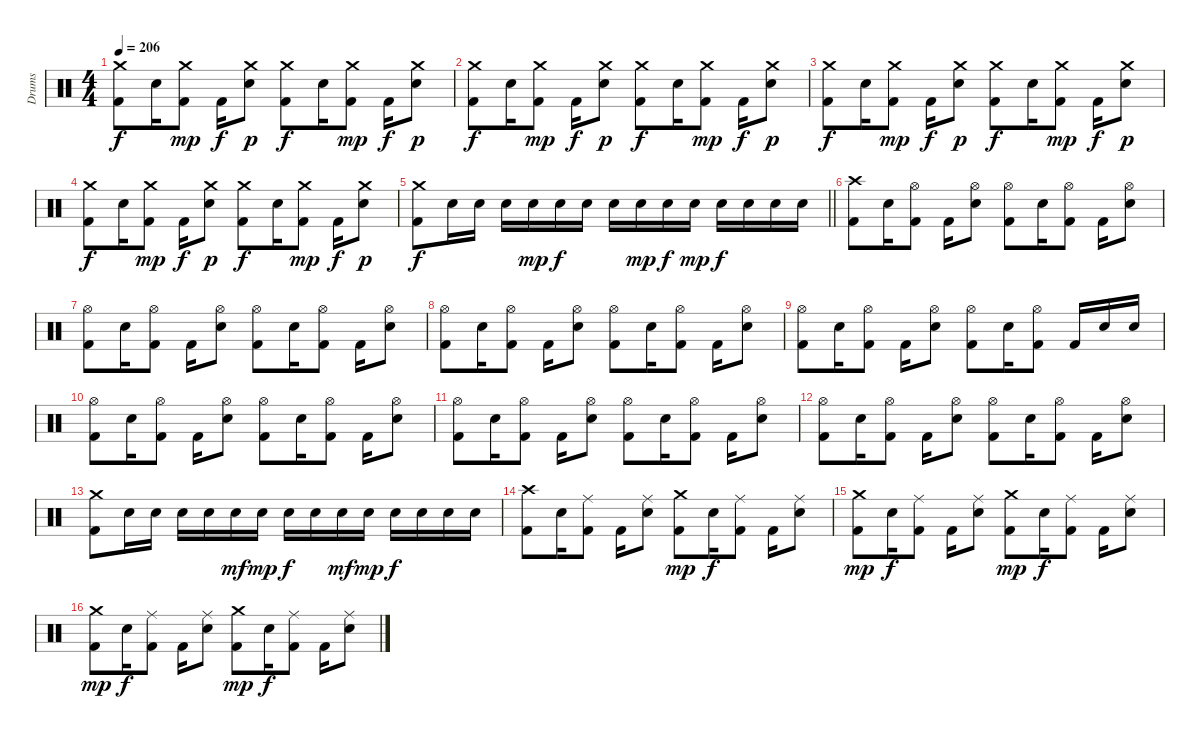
\track ("Drums" "Drums") {instrument percussion}
\staff {score}
\articulation defaults
\ts (4 4)
\tempo 206
\clef neutral
\ks c
("Crash medium (hit)" "Kick (hit) 2").8{dy f} "Electric Snare (hit)".16 ("Crash medium (hit)" "Kick (hit) 2").8{dy mp} "Kick (hit) 2".16{dy f} ("Crash medium (hit)" "Electric Snare (hit)").8{dy p} ("Crash medium (hit)" "Kick (hit) 2").8{dy f} "Electric Snare (hit)".16 ("Crash medium (hit)" "Kick (hit) 2").8{dy mp} "Kick (hit) 2".16{dy f} ("Crash medium (hit)" "Electric Snare (hit)").8{dy p} |
("Crash medium (hit)" "Kick (hit) 2").8{dy f} "Electric Snare (hit)".16 ("Crash medium (hit)" "Kick (hit) 2").8{dy mp} "Kick (hit) 2".16{dy f} ("Crash medium (hit)" "Electric Snare (hit)").8{dy p} ("Crash medium (hit)" "Kick (hit) 2").8{dy f} "Electric Snare (hit)".16 ("Crash medium (hit)" "Kick (hit) 2").8{dy mp} "Kick (hit) 2".16{dy f} ("Crash medium (hit)" "Electric Snare (hit)").8{dy p} |
("Crash medium (hit)" "Kick (hit) 2").8{dy f} "Electric Snare (hit)".16 ("Crash medium (hit)" "Kick (hit) 2").8{dy mp} "Kick (hit) 2".16{dy f} ("Crash medium (hit)" "Electric Snare (hit)").8{dy p} ("Crash medium (hit)" "Kick (hit) 2").8{dy f} "Electric Snare (hit)".16 ("Crash medium (hit)" "Kick (hit) 2").8{dy mp} "Kick (hit) 2".16{dy f} ("Crash medium (hit)" "Electric Snare (hit)").8{dy p} |
("Crash medium (hit)" "Kick (hit) 2").8{dy f} "Electric Snare (hit)".16 ("Crash medium (hit)" "Kick (hit) 2").8{dy mp} "Kick (hit) 2".16{dy f} ("Crash medium (hit)" "Electric Snare (hit)").8{dy p} ("Crash medium (hit)" "Kick (hit) 2").8{dy f} "Electric Snare (hit)".16 ("Crash medium (hit)" "Kick (hit) 2").8{dy mp} "Kick (hit) 2".16{dy f} ("Crash medium (hit)" "Electric Snare (hit)").8{dy p} |
\barLineRight lightlight
("Crash medium (hit)" "Kick (hit) 2").8{dy f} "Electric Snare (hit)".16 "Electric Snare (hit)".16 "Electric Snare (hit)".16 "Electric Snare (hit)".16{dy mp} "Electric Snare (hit)".16{dy f} "Electric Snare (hit)".16 "Electric Snare (hit)".16 "Electric Snare (hit)".16{dy mp} "Electric Snare (hit)".16{dy f} "Electric Snare (hit)".16{dy mp} "Electric Snare (hit)".16{dy f} "Electric Snare (hit)".16 "Electric Snare (hit)".16 "Electric Snare (hit)".16 |
\section ("" "")
("Crash high (hit)" "Kick (hit) 2").8 "Electric Snare (hit)".16 ("Hi-Hat (open)" "Kick (hit) 2").8 "Kick (hit) 2".16 ("Hi-Hat (open)" "Electric Snare (hit)").8 ("Hi-Hat (open)" "Kick (hit) 2").8 "Electric Snare (hit)".16 ("Hi-Hat (open)" "Kick (hit) 2").8 "Kick (hit) 2".16 ("Hi-Hat (open)" "Electric Snare (hit)").8 |
("Hi-Hat (open)" "Kick (hit) 2").8 "Electric Snare (hit)".16 ("Hi-Hat (open)" "Kick (hit) 2").8 "Kick (hit) 2".16 ("Hi-Hat (open)" "Electric Snare (hit)").8 ("Hi-Hat (open)" "Kick (hit) 2").8 "Electric Snare (hit)".16 ("Hi-Hat (open)" "Kick (hit) 2").8 "Kick (hit) 2".16 ("Hi-Hat (open)" "Electric Snare (hit)").8 |
("Hi-Hat (open)" "Kick (hit) 2").8 "Electric Snare (hit)".16 ("Hi-Hat (open)" "Kick (hit) 2").8 "Kick (hit) 2".16 ("Hi-Hat (open)" "Electric Snare (hit)").8 ("Hi-Hat (open)" "Kick (hit) 2").8 "Electric Snare (hit)".16 ("Hi-Hat (open)" "Kick (hit) 2").8 "Kick (hit) 2".16 ("Hi-Hat (open)" "Electric Snare (hit)").8 |
("Hi-Hat (open)" "Kick (hit) 2").8 "Electric Snare (hit)".16 ("Hi-Hat (open)" "Kick (hit) 2").8 "Kick (hit) 2".16 ("Hi-Hat (open)" "Electric Snare (hit)").8 ("Hi-Hat (open)" "Kick (hit) 2").8 "Electric Snare (hit)".16 ("Hi-Hat (open)" "Kick (hit) 2").8 "Kick (hit) 2".16 "Electric Snare (hit)".16 "Electric Snare (hit)".16 |
("Hi-Hat (open)" "Kick (hit) 2").8 "Electric Snare (hit)".16 ("Hi-Hat (open)" "Kick (hit) 2").8 "Kick (hit) 2".16 ("Hi-Hat (open)" "Electric Snare (hit)").8 ("Hi-Hat (open)" "Kick (hit) 2").8 "Electric Snare (hit)".16 ("Hi-Hat (open)" "Kick (hit) 2").8 "Kick (hit) 2".16 ("Hi-Hat (open)" "Electric Snare (hit)").8 |
("Hi-Hat (open)" "Kick (hit) 2").8 "Electric Snare (hit)".16 ("Hi-Hat (open)" "Kick (hit) 2").8 "Kick (hit) 2".16 ("Hi-Hat (open)" "Electric Snare (hit)").8 ("Hi-Hat (open)" "Kick (hit) 2").8 "Electric Snare (hit)".16 ("Hi-Hat (open)" "Kick (hit) 2").8 "Kick (hit) 2".16 ("Hi-Hat (open)" "Electric Snare (hit)").8 |
("Hi-Hat (open)" "Kick (hit) 2").8 "Electric Snare (hit)".16 ("Hi-Hat (open)" "Kick (hit) 2").8 "Kick (hit) 2".16 ("Hi-Hat (open)" "Electric Snare (hit)").8 ("Hi-Hat (open)" "Kick (hit) 2").8 "Electric Snare (hit)".16 ("Hi-Hat (open)" "Kick (hit) 2").8 "Kick (hit) 2".16 ("Hi-Hat (open)" "Electric Snare (hit)").8 |
("Crash medium (hit)" "Kick (hit) 2").8 "Electric Snare (hit)".16 "Electric Snare (hit)".16 "Electric Snare (hit)".16 "Electric Snare (hit)".16 "Electric Snare (hit)".16{dy mf} "Electric Snare (hit)".16{dy mp} "Electric Snare (hit)".16{dy f} "Electric Snare (hit)".16 "Electric Snare (hit)".16{dy mf} "Electric Snare (hit)".16{dy mp} "Electric Snare (hit)".16{dy f} "Electric Snare (hit)".16 "Electric Snare (hit)".16 "Electric Snare (hit)".16 |
("Crash high (hit)" "Kick (hit) 2").8 "Electric Snare (hit)".16 ("Ride (middle)" "Kick (hit) 2").8 "Kick (hit) 2".16 ("Ride (middle)" "Electric Snare (hit)").8 ("Crash medium (hit)" "Kick (hit) 2").8{dy mp} "Electric Snare (hit)".16{dy f} ("Ride (middle)" "Kick (hit) 2").8 "Kick (hit) 2".16 ("Ride (middle)" "Electric Snare (hit)").8 |
("Crash medium (hit)" "Kick (hit) 2").8{dy mp} "Electric Snare (hit)".16{dy f} ("Ride (middle)" "Kick (hit) 2").8 "Kick (hit) 2".16 ("Ride (middle)" "Electric Snare (hit)").8 ("Crash medium (hit)" "Kick (hit) 2").8{dy mp} "Electric Snare (hit)".16{dy f} ("Ride (middle)" "Kick (hit) 2").8 "Kick (hit) 2".16 ("Ride (middle)" "Electric Snare (hit)").8 |
("Crash medium (hit)" "Kick (hit) 2").8{dy mp} "Electric Snare (hit)".16{dy f} ("Ride (middle)" "Kick (hit) 2").8 "Kick (hit) 2".16 ("Ride (middle)" "Electric Snare (hit)").8 ("Crash medium (hit)" "Kick (hit) 2").8{dy mp} "Electric Snare (hit)".16{dy f} ("Ride (middle)" "Kick (hit) 2").8 "Kick (hit) 2".16 ("Ride (middle)" "Electric Snare (hit)").8
